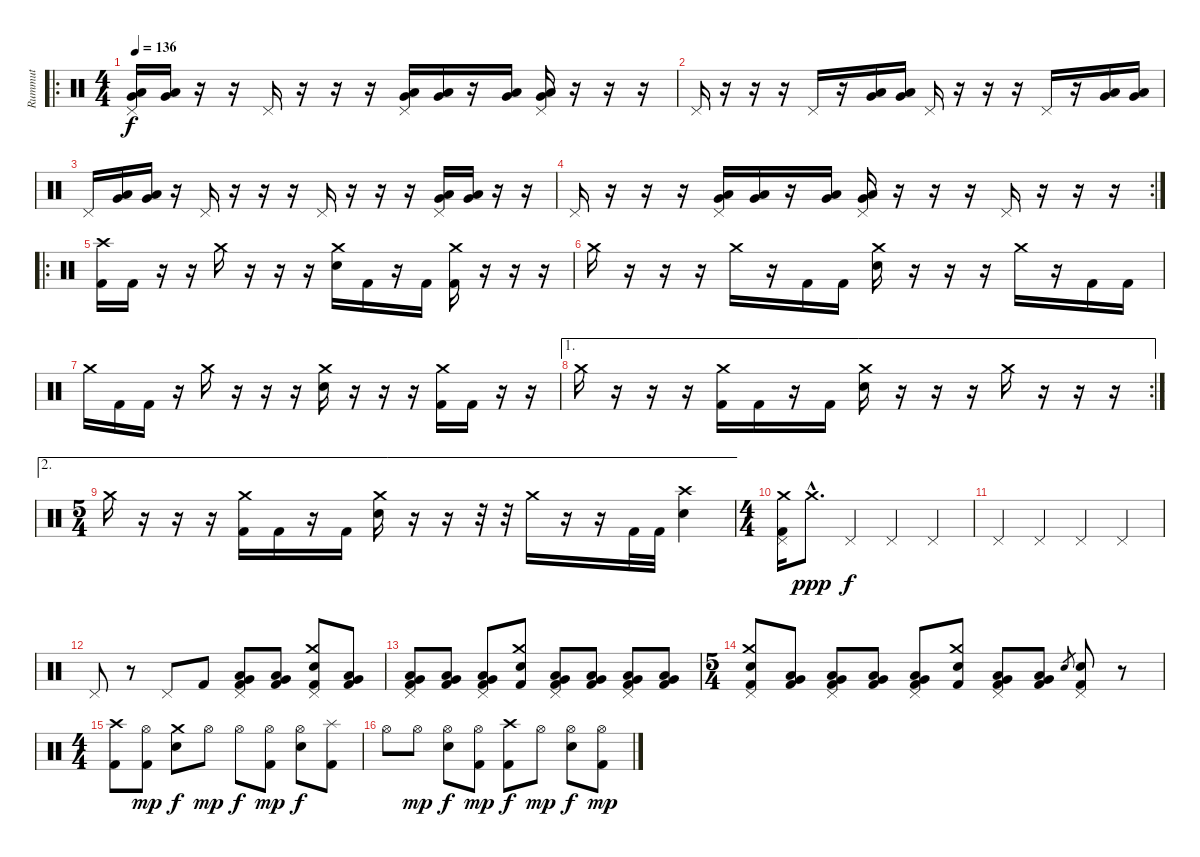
\track ("Rummut" "Rummut") {instrument percussion}
\staff {score}
\articulation defaults
\ro
\ts (4 4)
\tempo 136
\clef neutral
\ks c
("Pedal Hi-Hat (hit)" "Very Low Tom (hit)" "Low Floor Tom (hit)").16{dy f} ("Very Low Tom (hit)" "Low Floor Tom (hit)").16 r.16 r.16 "Pedal Hi-Hat (hit)".16 r.16 r.16 r.16 ("Pedal Hi-Hat (hit)" "Very Low Tom (hit)" "Low Floor Tom (hit)").16 ("Very Low Tom (hit)" "Low Floor Tom (hit)").16 r.16 ("Very Low Tom (hit)" "Low Floor Tom (hit)").16 ("Pedal Hi-Hat (hit)" "Very Low Tom (hit)" "Low Floor Tom (hit)").16 r.16 r.16 r.16 |
"Pedal Hi-Hat (hit)".16 r.16 r.16 r.16 "Pedal Hi-Hat (hit)".16 r.16 ("Very Low Tom (hit)" "Low Floor Tom (hit)").16 ("Very Low Tom (hit)" "Low Floor Tom (hit)").16 "Pedal Hi-Hat (hit)".16 r.16 r.16 r.16 "Pedal Hi-Hat (hit)".16 r.16 ("Very Low Tom (hit)" "Low Floor Tom (hit)").16 ("Very Low Tom (hit)" "Low Floor Tom (hit)").16 |
"Pedal Hi-Hat (hit)".16 ("Very Low Tom (hit)" "Low Floor Tom (hit)").16 ("Very Low Tom (hit)" "Low Floor Tom (hit)").16 r.16 "Pedal Hi-Hat (hit)".16 r.16 r.16 r.16 "Pedal Hi-Hat (hit)".16 r.16 r.16 r.16 ("Pedal Hi-Hat (hit)" "Very Low Tom (hit)" "Low Floor Tom (hit)").16 ("Very Low Tom (hit)" "Low Floor Tom (hit)").16 r.16 r.16 |
\rc 2 "Pedal Hi-Hat (hit)".16
r.16 r.16 r.16 ("Pedal Hi-Hat (hit)" "Very Low Tom (hit)" "Low Floor Tom (hit)").16 ("Very Low Tom (hit)" "Low Floor Tom (hit)").16 r.16 ("Very Low Tom (hit)" "Low Floor Tom (hit)").16 ("Pedal Hi-Hat (hit)" "Very Low Tom (hit)" "Low Floor Tom (hit)").16 r.16 r.16 r.16 "Pedal Hi-Hat (hit)".16 r.16 r.16 r.16 |
\ro
("Crash high (hit)" "Kick (hit) 2").16 "Kick (hit) 2".16 r.16 r.16 "Crash medium (hit)".16 r.16 r.16 r.16 ("Crash medium (hit)" "Electric Snare (hit)").16 "Kick (hit) 2".16 r.16 "Kick (hit) 2".16 ("Crash medium (hit)" "Kick (hit) 2").16 r.16 r.16 r.16 |
"Crash medium (hit)".16 r.16 r.16 r.16 "Crash medium (hit)".16 r.16 "Kick (hit) 2".16 "Kick (hit) 2".16 ("Crash medium (hit)" "Electric Snare (hit)").16 r.16 r.16 r.16 "Crash medium (hit)".16 r.16 "Kick (hit) 2".16 "Kick (hit) 2".16 |
"Crash medium (hit)".16 "Kick (hit) 2".16 "Kick (hit) 2".16 r.16 "Crash medium (hit)".16 r.16 r.16 r.16 ("Crash medium (hit)" "Electric Snare (hit)").16 r.16 r.16 r.16 ("Crash medium (hit)" "Kick (hit) 2").16 "Kick (hit) 2".16 r.16 r.16 |
\ae 1
\rc 2 "Crash medium (hit)".16
r.16 r.16 r.16 ("Crash medium (hit)" "Kick (hit) 2").16 "Kick (hit) 2".16 r.16 "Kick (hit) 2".16 ("Crash medium (hit)" "Electric Snare (hit)").16 r.16 r.16 r.16 "Crash medium (hit)".16 r.16 r.16 r.16 |
\ae 2
\ts (5 4)
"Crash medium (hit)".16 r.16 r.16 r.16 ("Crash medium (hit)" "Kick (hit) 2").16 "Kick (hit) 2".16 r.16 "Kick (hit) 2".16 ("Crash medium (hit)" "Electric Snare (hit)").16 r.16 r.16 r.32 r.32 "Crash medium (hit)".16 r.16 r.16 "Kick (hit) 2".32 "Kick (hit) 2".32 ("Crash high (hit)" "Electric Snare (hit)").4 |
\ts (4 4)
("Crash medium (hit)" "Pedal Hi-Hat (hit)" "Kick (hit) 2").16 "Crash medium (hit)"{hac}.8{d dy ppp} "Pedal Hi-Hat (hit)".4{dy f} "Pedal Hi-Hat (hit)".4 "Pedal Hi-Hat (hit)".4 |
"Pedal Hi-Hat (hit)".4 "Pedal Hi-Hat (hit)".4 "Pedal Hi-Hat (hit)".4 "Pedal Hi-Hat (hit)".4 |
"Pedal Hi-Hat (hit)".8 r.8 "Pedal Hi-Hat (hit)".8 "Kick (hit) 2".8 ("Pedal Hi-Hat (hit)" "Very Low Tom (hit)" "Low Floor Tom (hit)" "Kick (hit) 2").8 ("Very Low Tom (hit)" "Low Floor Tom (hit)" "Kick (hit) 2").8 ("Crash medium (hit)" "Pedal Hi-Hat (hit)" "Electric Snare (hit)" "Kick (hit) 2").8 ("Very Low Tom (hit)" "Low Floor Tom (hit)" "Kick (hit) 2").8 |
("Pedal Hi-Hat (hit)" "Very Low Tom (hit)" "Low Floor Tom (hit)" "Kick (hit) 2").8 ("Very Low Tom (hit)" "Low Floor Tom (hit)" "Kick (hit) 2").8 ("Pedal Hi-Hat (hit)" "Very Low Tom (hit)" "Low Floor Tom (hit)" "Kick (hit) 2").8 ("Crash medium (hit)" "Electric Snare (hit)" "Kick (hit) 2").8 ("Pedal Hi-Hat (hit)" "Very Low Tom (hit)" "Low Floor Tom (hit)" "Kick (hit) 2").8 ("Very Low Tom (hit)" "Low Floor Tom (hit)" "Kick (hit) 2").8 ("Pedal Hi-Hat (hit)" "Very Low Tom (hit)" "Low Floor Tom (hit)" "Kick (hit) 2").8 ("Very Low Tom (hit)" "Low Floor Tom (hit)" "Kick (hit) 2").8 |
\ts (5 4)
("Crash medium (hit)" "Pedal Hi-Hat (hit)" "Electric Snare (hit)" "Kick (hit) 2").8 ("Very Low Tom (hit)" "Low Floor Tom (hit)" "Kick (hit) 2").8 ("Pedal Hi-Hat (hit)" "Very Low Tom (hit)" "Low Floor Tom (hit)" "Kick (hit) 2").8 ("Very Low Tom (hit)" "Low Floor Tom (hit)" "Kick (hit) 2").8 ("Pedal Hi-Hat (hit)" "Very Low Tom (hit)" "Low Floor Tom (hit)" "Kick (hit) 2").8 ("Crash medium (hit)" "Electric Snare (hit)" "Kick (hit) 2").8 ("Pedal Hi-Hat (hit)" "Very Low Tom (hit)" "Low Floor Tom (hit)" "Kick (hit) 2").8 ("Very Low Tom (hit)" "Low Floor Tom (hit)" "Kick (hit) 2").8 "Electric Snare (hit)".8{gr} ("Pedal Hi-Hat (hit)" "Electric Snare (hit)" "Kick (hit) 2").8 r.8 |
\ts (4 4)
("Crash high (hit)" "Kick (hit) 2").8 ("Hi-Hat (open)" "Kick (hit) 2").8{dy mp} ("Crash medium (hit)" "Electric Snare (hit)").8{dy f} "Hi-Hat (open)".8{dy mp} "Hi-Hat (open)".8{dy f} ("Hi-Hat (open)" "Kick (hit) 2").8{dy mp} ("Hi-Hat (open)" "Electric Snare (hit)").8{dy f} ("Splash (hit)" "Kick (hit) 2").8 |
"Hi-Hat (open)".8 "Hi-Hat (open)".8{dy mp} ("Hi-Hat (open)" "Electric Snare (hit)").8{dy f} ("Hi-Hat (open)" "Kick (hit) 2").8{dy mp} ("Crash high (hit)" "Kick (hit) 2").8{dy f} "Hi-Hat (open)".8{dy mp} ("Hi-Hat (open)" "Electric Snare (hit)").8{dy f} ("Hi-Hat (open)" "Kick (hit) 2").8{dy mp}
